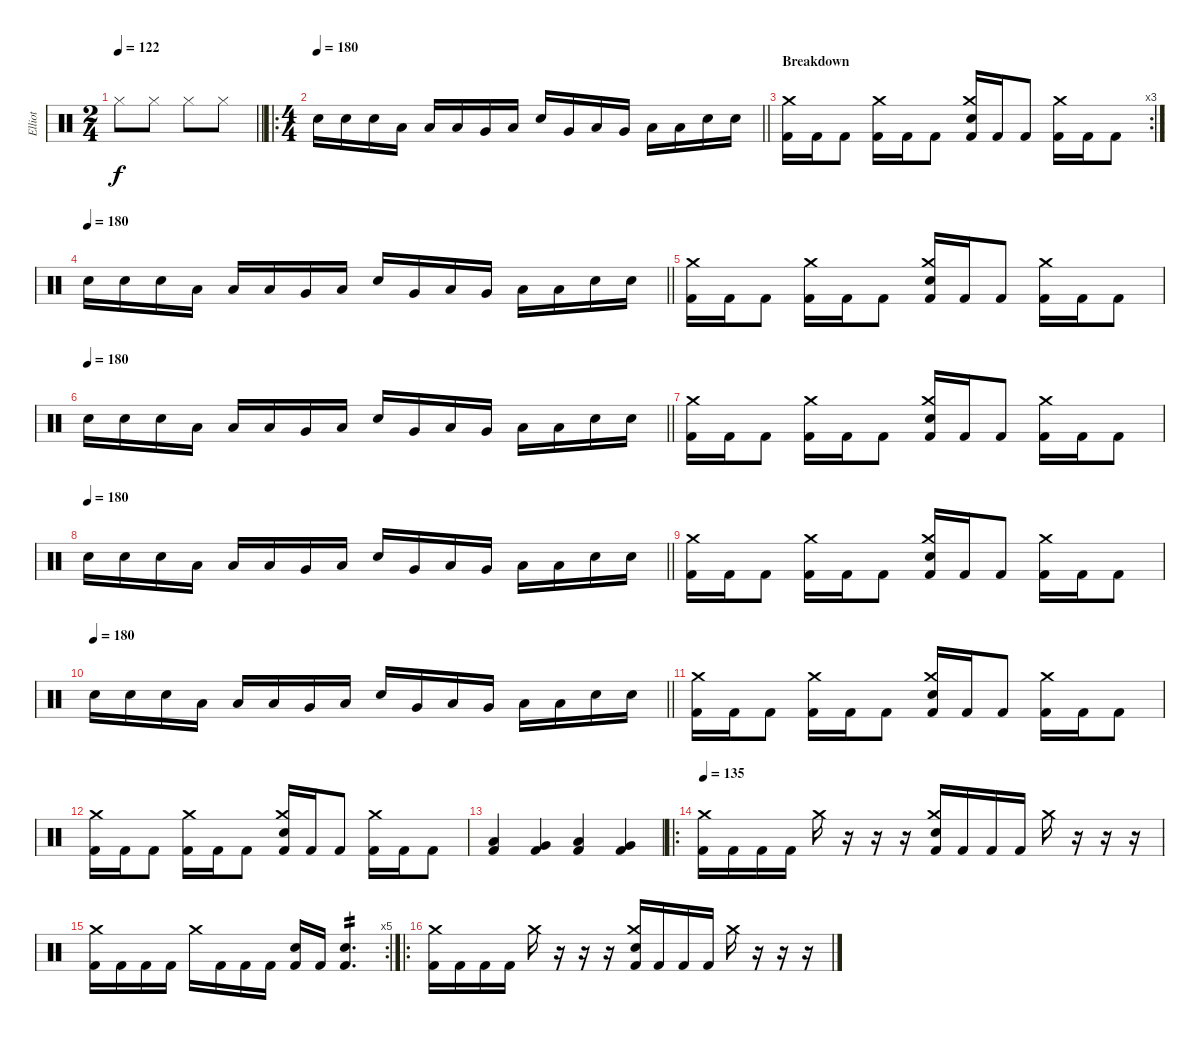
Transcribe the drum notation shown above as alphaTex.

\track ("Elliot" "Elliot") {instrument percussion}
\staff {score}
\articulation defaults
\ts (2 4)
\tempo 122
\clef neutral
\barLineRight lightlight
\ks c "Hi-Hat (closed)".8{dy f} "Hi-Hat (closed)".8 "Hi-Hat (closed)".8 "Hi-Hat (closed)".8
|
\ro
\ts (4 4)
\tempo 180
\barLineRight lightlight "Electric Snare (hit)".16 "Electric Snare (hit)".16 "Electric Snare (hit)".16 "Low Tom (hit)".16 "Low Tom (hit)".16 "Low Tom (hit)".16 "Very Low Tom (hit)".16 "Low Floor Tom (hit)".16 "Electric Snare (hit)".16 "Very Low Tom (hit)".16 "Low Floor Tom (hit)".16 "Very Low Tom (hit)".16 "Low Tom (hit)".16 "Low Floor Tom (hit)".16 "Electric Snare (hit)".16 "Electric Snare (hit)".16
|
\rc 3
\section ("" "Breakdown")
("Crash medium (hit)" "Kick (hit) 2").16 "Kick (hit) 2".16 "Kick (hit) 2".8 ("Crash medium (hit)" "Kick (hit) 2").16 "Kick (hit) 2".16 "Kick (hit) 2".8 ("Crash medium (hit)" "Electric Snare (hit)" "Kick (hit) 2").16 "Kick (hit) 2".16 "Kick (hit) 2".8 ("Crash medium (hit)" "Kick (hit) 2").16 "Kick (hit) 2".16 "Kick (hit) 2".8 |
\tempo 180
\barLineRight lightlight "Electric Snare (hit)".16 "Electric Snare (hit)".16 "Electric Snare (hit)".16 "Low Tom (hit)".16 "Low Tom (hit)".16 "Low Tom (hit)".16 "Very Low Tom (hit)".16 "Low Floor Tom (hit)".16 "Electric Snare (hit)".16 "Very Low Tom (hit)".16 "Low Floor Tom (hit)".16 "Very Low Tom (hit)".16 "Low Tom (hit)".16 "Low Floor Tom (hit)".16 "Electric Snare (hit)".16 "Electric Snare (hit)".16
|
("Crash medium (hit)" "Kick (hit) 2").16 "Kick (hit) 2".16 "Kick (hit) 2".8 ("Crash medium (hit)" "Kick (hit) 2").16 "Kick (hit) 2".16 "Kick (hit) 2".8 ("Crash medium (hit)" "Electric Snare (hit)" "Kick (hit) 2").16 "Kick (hit) 2".16 "Kick (hit) 2".8 ("Crash medium (hit)" "Kick (hit) 2").16 "Kick (hit) 2".16 "Kick (hit) 2".8 |
\tempo 180
\barLineRight lightlight "Electric Snare (hit)".16 "Electric Snare (hit)".16 "Electric Snare (hit)".16 "Low Tom (hit)".16 "Low Tom (hit)".16 "Low Tom (hit)".16 "Very Low Tom (hit)".16 "Low Floor Tom (hit)".16 "Electric Snare (hit)".16 "Very Low Tom (hit)".16 "Low Floor Tom (hit)".16 "Very Low Tom (hit)".16 "Low Tom (hit)".16 "Low Floor Tom (hit)".16 "Electric Snare (hit)".16 "Electric Snare (hit)".16
|
("Crash medium (hit)" "Kick (hit) 2").16 "Kick (hit) 2".16 "Kick (hit) 2".8 ("Crash medium (hit)" "Kick (hit) 2").16 "Kick (hit) 2".16 "Kick (hit) 2".8 ("Crash medium (hit)" "Electric Snare (hit)" "Kick (hit) 2").16 "Kick (hit) 2".16 "Kick (hit) 2".8 ("Crash medium (hit)" "Kick (hit) 2").16 "Kick (hit) 2".16 "Kick (hit) 2".8 |
\tempo 180
\barLineRight lightlight "Electric Snare (hit)".16 "Electric Snare (hit)".16 "Electric Snare (hit)".16 "Low Tom (hit)".16 "Low Tom (hit)".16 "Low Tom (hit)".16 "Very Low Tom (hit)".16 "Low Floor Tom (hit)".16 "Electric Snare (hit)".16 "Very Low Tom (hit)".16 "Low Floor Tom (hit)".16 "Very Low Tom (hit)".16 "Low Tom (hit)".16 "Low Floor Tom (hit)".16 "Electric Snare (hit)".16 "Electric Snare (hit)".16
|
("Crash medium (hit)" "Kick (hit) 2").16 "Kick (hit) 2".16 "Kick (hit) 2".8 ("Crash medium (hit)" "Kick (hit) 2").16 "Kick (hit) 2".16 "Kick (hit) 2".8 ("Crash medium (hit)" "Electric Snare (hit)" "Kick (hit) 2").16 "Kick (hit) 2".16 "Kick (hit) 2".8 ("Crash medium (hit)" "Kick (hit) 2").16 "Kick (hit) 2".16 "Kick (hit) 2".8 |
\tempo 180
\barLineRight lightlight "Electric Snare (hit)".16 "Electric Snare (hit)".16 "Electric Snare (hit)".16 "Low Tom (hit)".16 "Low Tom (hit)".16 "Low Tom (hit)".16 "Very Low Tom (hit)".16 "Low Floor Tom (hit)".16 "Electric Snare (hit)".16 "Very Low Tom (hit)".16 "Low Floor Tom (hit)".16 "Very Low Tom (hit)".16 "Low Tom (hit)".16 "Low Floor Tom (hit)".16 "Electric Snare (hit)".16 "Electric Snare (hit)".16
|
("Crash medium (hit)" "Kick (hit) 2").16 "Kick (hit) 2".16 "Kick (hit) 2".8 ("Crash medium (hit)" "Kick (hit) 2").16 "Kick (hit) 2".16 "Kick (hit) 2".8 ("Crash medium (hit)" "Electric Snare (hit)" "Kick (hit) 2").16 "Kick (hit) 2".16 "Kick (hit) 2".8 ("Crash medium (hit)" "Kick (hit) 2").16 "Kick (hit) 2".16 "Kick (hit) 2".8 |
("Crash medium (hit)" "Kick (hit) 2").16 "Kick (hit) 2".16 "Kick (hit) 2".8 ("Crash medium (hit)" "Kick (hit) 2").16 "Kick (hit) 2".16 "Kick (hit) 2".8 ("Crash medium (hit)" "Electric Snare (hit)" "Kick (hit) 2").16 "Kick (hit) 2".16 "Kick (hit) 2".8 ("Crash medium (hit)" "Kick (hit) 2").16 "Kick (hit) 2".16 "Kick (hit) 2".8 |
("Low Tom (hit)" "Kick (hit) 2").4 ("Very Low Tom (hit)" "Kick (hit) 2").4 ("Low Floor Tom (hit)" "Kick (hit) 2").4 ("Very Low Tom (hit)" "Kick (hit) 2").4 |
\ro
\tempo 135
("Crash medium (hit)" "Kick (hit) 2").16 "Kick (hit) 2".16 "Kick (hit) 2".16 "Kick (hit) 2".16 "Crash medium (hit)".16 r.16 r.16 r.16 ("Crash medium (hit)" "Electric Snare (hit)" "Kick (hit) 2").16 "Kick (hit) 2".16 "Kick (hit) 2".16 "Kick (hit) 2".16 "Crash medium (hit)".16 r.16 r.16 r.16 |
\rc 5
("Crash medium (hit)" "Kick (hit) 2").16 "Kick (hit) 2".16 "Kick (hit) 2".16 "Kick (hit) 2".16 "Crash medium (hit)".16 "Kick (hit) 2".16 "Kick (hit) 2".16 "Kick (hit) 2".16 ("Electric Snare (hit)" "Kick (hit) 2").16 "Kick (hit) 2".16 ("Electric Snare (hit)" "Kick (hit) 2").4{d tp 2} |
\ro
("Crash medium (hit)" "Kick (hit) 2").16 "Kick (hit) 2".16 "Kick (hit) 2".16 "Kick (hit) 2".16 "Crash medium (hit)".16 r.16 r.16 r.16 ("Crash medium (hit)" "Electric Snare (hit)" "Kick (hit) 2").16 "Kick (hit) 2".16 "Kick (hit) 2".16 "Kick (hit) 2".16 "Crash medium (hit)".16 r.16 r.16 r.16
